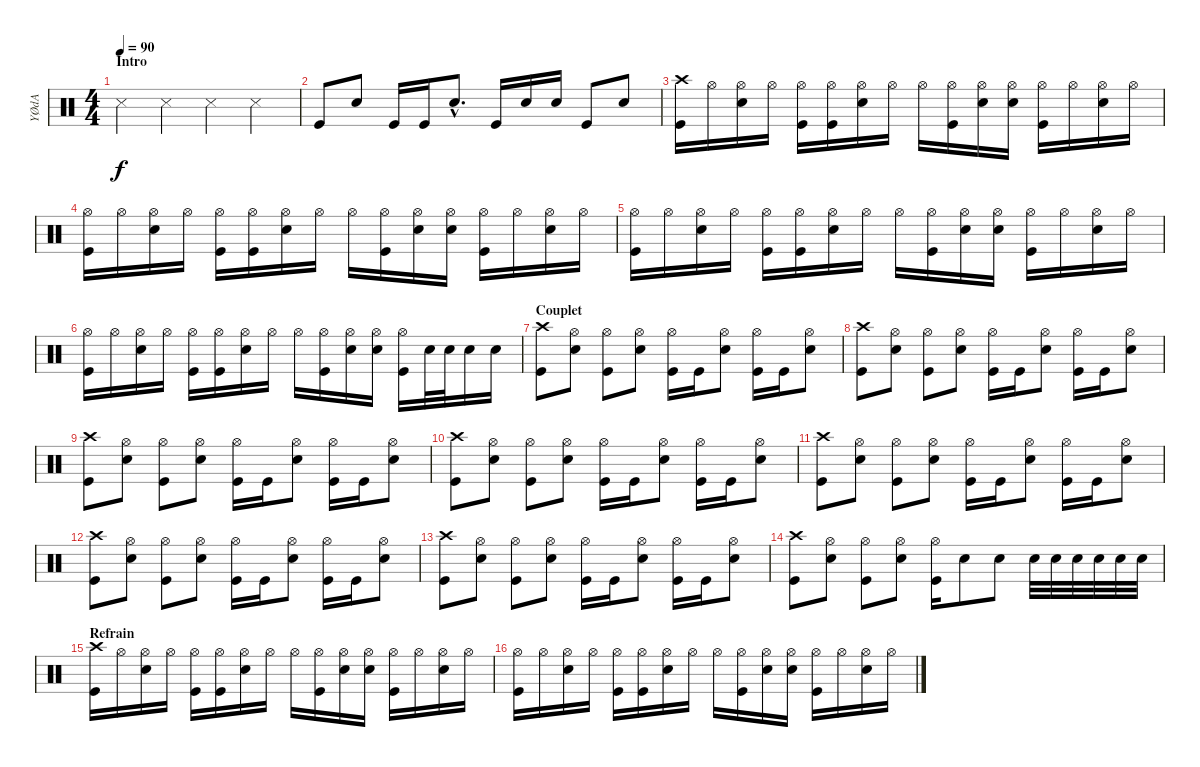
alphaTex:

\track ("YØdA" "YØdA") {instrument percussion}
\staff {score}
\articulation defaults
\ts (4 4)
\section ("" "Intro")
\tempo 90
\clef neutral
\ks c "Snare (side stick) 3".4{dy f} "Snare (side stick) 3".4 "Snare (side stick) 3".4 "Snare (side stick) 3".4
|
"Kick (hit)".8 "Electric Snare (hit)".8 "Kick (hit)".16 "Kick (hit)".16 "Electric Snare (hit)"{hac}.8{d} "Kick (hit)".16 "Electric Snare (hit)".16 "Electric Snare (hit)".16 "Kick (hit)".8 "Electric Snare (hit)".8 |
("Crash high (hit)" "Kick (hit)").16 "Hi-Hat (open)".16 ("Hi-Hat (open)" "Electric Snare (hit)").16 "Hi-Hat (open)".16 ("Hi-Hat (open)" "Kick (hit)").16 ("Hi-Hat (open)" "Kick (hit)").16 ("Hi-Hat (open)" "Electric Snare (hit)").16 "Hi-Hat (open)".16 "Hi-Hat (open)".16 ("Hi-Hat (open)" "Kick (hit)").16 ("Hi-Hat (open)" "Electric Snare (hit)").16 ("Hi-Hat (open)" "Electric Snare (hit)").16 ("Hi-Hat (open)" "Kick (hit)").16 "Hi-Hat (open)".16 ("Hi-Hat (open)" "Electric Snare (hit)").16 "Hi-Hat (open)".16 |
("Hi-Hat (open)" "Kick (hit)").16 "Hi-Hat (open)".16 ("Hi-Hat (open)" "Electric Snare (hit)").16 "Hi-Hat (open)".16 ("Hi-Hat (open)" "Kick (hit)").16 ("Hi-Hat (open)" "Kick (hit)").16 ("Hi-Hat (open)" "Electric Snare (hit)").16 "Hi-Hat (open)".16 "Hi-Hat (open)".16 ("Hi-Hat (open)" "Kick (hit)").16 ("Hi-Hat (open)" "Electric Snare (hit)").16 ("Hi-Hat (open)" "Electric Snare (hit)").16 ("Hi-Hat (open)" "Kick (hit)").16 "Hi-Hat (open)".16 ("Hi-Hat (open)" "Electric Snare (hit)").16 "Hi-Hat (open)".16 |
("Hi-Hat (open)" "Kick (hit)").16 "Hi-Hat (open)".16 ("Hi-Hat (open)" "Electric Snare (hit)").16 "Hi-Hat (open)".16 ("Hi-Hat (open)" "Kick (hit)").16 ("Hi-Hat (open)" "Kick (hit)").16 ("Hi-Hat (open)" "Electric Snare (hit)").16 "Hi-Hat (open)".16 "Hi-Hat (open)".16 ("Hi-Hat (open)" "Kick (hit)").16 ("Hi-Hat (open)" "Electric Snare (hit)").16 ("Hi-Hat (open)" "Electric Snare (hit)").16 ("Hi-Hat (open)" "Kick (hit)").16 "Hi-Hat (open)".16 ("Hi-Hat (open)" "Electric Snare (hit)").16 "Hi-Hat (open)".16 |
("Hi-Hat (open)" "Kick (hit)").16 "Hi-Hat (open)".16 ("Hi-Hat (open)" "Electric Snare (hit)").16 "Hi-Hat (open)".16 ("Hi-Hat (open)" "Kick (hit)").16 ("Hi-Hat (open)" "Kick (hit)").16 ("Hi-Hat (open)" "Electric Snare (hit)").16 "Hi-Hat (open)".16 "Hi-Hat (open)".16 ("Hi-Hat (open)" "Kick (hit)").16 ("Hi-Hat (open)" "Electric Snare (hit)").16 ("Hi-Hat (open)" "Electric Snare (hit)").16 ("Hi-Hat (open)" "Kick (hit)").16 "Electric Snare (hit)".32 "Electric Snare (hit)".32 "Electric Snare (hit)".16 "Electric Snare (hit)".16 |
\section ("" "Couplet")
("Crash high (hit)" "Kick (hit)").8 ("Hi-Hat (open)" "Electric Snare (hit)").8 ("Hi-Hat (open)" "Kick (hit)").8 ("Hi-Hat (open)" "Electric Snare (hit)").8 ("Hi-Hat (open)" "Kick (hit)").16 "Kick (hit)".16 ("Hi-Hat (open)" "Electric Snare (hit)").8 ("Hi-Hat (open)" "Kick (hit)").16 "Kick (hit)".16 ("Hi-Hat (open)" "Electric Snare (hit)").8 |
("Crash high (hit)" "Kick (hit)").8 ("Hi-Hat (open)" "Electric Snare (hit)").8 ("Hi-Hat (open)" "Kick (hit)").8 ("Hi-Hat (open)" "Electric Snare (hit)").8 ("Hi-Hat (open)" "Kick (hit)").16 "Kick (hit)".16 ("Hi-Hat (open)" "Electric Snare (hit)").8 ("Hi-Hat (open)" "Kick (hit)").16 "Kick (hit)".16 ("Hi-Hat (open)" "Electric Snare (hit)").8 |
("Crash high (hit)" "Kick (hit)").8 ("Hi-Hat (open)" "Electric Snare (hit)").8 ("Hi-Hat (open)" "Kick (hit)").8 ("Hi-Hat (open)" "Electric Snare (hit)").8 ("Hi-Hat (open)" "Kick (hit)").16 "Kick (hit)".16 ("Hi-Hat (open)" "Electric Snare (hit)").8 ("Hi-Hat (open)" "Kick (hit)").16 "Kick (hit)".16 ("Hi-Hat (open)" "Electric Snare (hit)").8 |
("Crash high (hit)" "Kick (hit)").8 ("Hi-Hat (open)" "Electric Snare (hit)").8 ("Hi-Hat (open)" "Kick (hit)").8 ("Hi-Hat (open)" "Electric Snare (hit)").8 ("Hi-Hat (open)" "Kick (hit)").16 "Kick (hit)".16 ("Hi-Hat (open)" "Electric Snare (hit)").8 ("Hi-Hat (open)" "Kick (hit)").16 "Kick (hit)".16 ("Hi-Hat (open)" "Electric Snare (hit)").8 |
("Crash high (hit)" "Kick (hit)").8 ("Hi-Hat (open)" "Electric Snare (hit)").8 ("Hi-Hat (open)" "Kick (hit)").8 ("Hi-Hat (open)" "Electric Snare (hit)").8 ("Hi-Hat (open)" "Kick (hit)").16 "Kick (hit)".16 ("Hi-Hat (open)" "Electric Snare (hit)").8 ("Hi-Hat (open)" "Kick (hit)").16 "Kick (hit)".16 ("Hi-Hat (open)" "Electric Snare (hit)").8 |
("Crash high (hit)" "Kick (hit)").8 ("Hi-Hat (open)" "Electric Snare (hit)").8 ("Hi-Hat (open)" "Kick (hit)").8 ("Hi-Hat (open)" "Electric Snare (hit)").8 ("Hi-Hat (open)" "Kick (hit)").16 "Kick (hit)".16 ("Hi-Hat (open)" "Electric Snare (hit)").8 ("Hi-Hat (open)" "Kick (hit)").16 "Kick (hit)".16 ("Hi-Hat (open)" "Electric Snare (hit)").8 |
("Crash high (hit)" "Kick (hit)").8 ("Hi-Hat (open)" "Electric Snare (hit)").8 ("Hi-Hat (open)" "Kick (hit)").8 ("Hi-Hat (open)" "Electric Snare (hit)").8 ("Hi-Hat (open)" "Kick (hit)").16 "Kick (hit)".16 ("Hi-Hat (open)" "Electric Snare (hit)").8 ("Hi-Hat (open)" "Kick (hit)").16 "Kick (hit)".16 ("Hi-Hat (open)" "Electric Snare (hit)").8 |
("Crash high (hit)" "Kick (hit)").8 ("Hi-Hat (open)" "Electric Snare (hit)").8 ("Hi-Hat (open)" "Kick (hit)").8 ("Hi-Hat (open)" "Electric Snare (hit)").8 ("Hi-Hat (open)" "Kick (hit)").16 "Electric Snare (hit)".8 "Electric Snare (hit)".8 "Electric Snare (hit)".32 "Electric Snare (hit)".32 "Electric Snare (hit)".32 "Electric Snare (hit)".32 "Electric Snare (hit)".32 "Electric Snare (hit)".32 |
\section ("" "Refrain")
("Crash high (hit)" "Kick (hit)").16 "Hi-Hat (open)".16 ("Hi-Hat (open)" "Electric Snare (hit)").16 "Hi-Hat (open)".16 ("Hi-Hat (open)" "Kick (hit)").16 ("Hi-Hat (open)" "Kick (hit)").16 ("Hi-Hat (open)" "Electric Snare (hit)").16 "Hi-Hat (open)".16 "Hi-Hat (open)".16 ("Hi-Hat (open)" "Kick (hit)").16 ("Hi-Hat (open)" "Electric Snare (hit)").16 ("Hi-Hat (open)" "Electric Snare (hit)").16 ("Hi-Hat (open)" "Kick (hit)").16 "Hi-Hat (open)".16 ("Hi-Hat (open)" "Electric Snare (hit)").16 "Hi-Hat (open)".16 |
("Hi-Hat (open)" "Kick (hit)").16 "Hi-Hat (open)".16 ("Hi-Hat (open)" "Electric Snare (hit)").16 "Hi-Hat (open)".16 ("Hi-Hat (open)" "Kick (hit)").16 ("Hi-Hat (open)" "Kick (hit)").16 ("Hi-Hat (open)" "Electric Snare (hit)").16 "Hi-Hat (open)".16 "Hi-Hat (open)".16 ("Hi-Hat (open)" "Kick (hit)").16 ("Hi-Hat (open)" "Electric Snare (hit)").16 ("Hi-Hat (open)" "Electric Snare (hit)").16 ("Hi-Hat (open)" "Kick (hit)").16 "Hi-Hat (open)".16 ("Hi-Hat (open)" "Electric Snare (hit)").16 "Hi-Hat (open)".16
